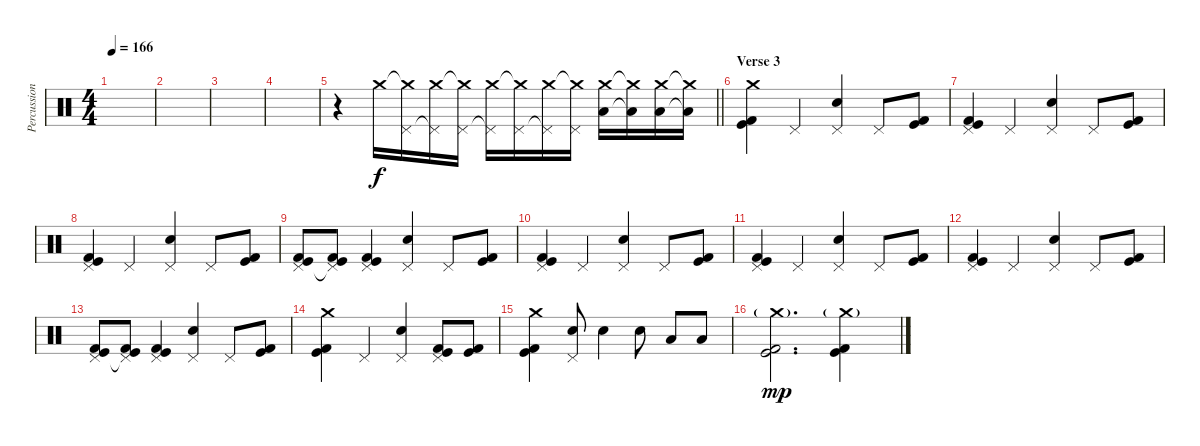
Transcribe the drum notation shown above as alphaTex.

\track ("Percussion" "Percussion") {instrument percussion}
\staff {score}
\articulation defaults
\ts (4 4)
\tempo 166
\clef neutral
\ks c
|
|
|
|
\barLineRight lightlight
r.4 "Crash medium (hit)".16{volume 9} ("Crash medium (hit)"{t} "Pedal Hi-Hat (hit)").16 ("Crash medium (hit)" "Pedal Hi-Hat (hit)"{t}).16 ("Crash medium (hit)"{t} "Pedal Hi-Hat (hit)").16 ("Crash medium (hit)" "Pedal Hi-Hat (hit)"{t}).16 ("Crash medium (hit)"{t} "Pedal Hi-Hat (hit)").16 ("Crash medium (hit)" "Pedal Hi-Hat (hit)"{t}).16 ("Crash medium (hit)"{t} "Pedal Hi-Hat (hit)").16 ("Crash medium (hit)" "Low Tom (hit)").16{volume 13} ("Crash medium (hit)"{t} "Low Tom (hit)"{t}).16 ("Crash medium (hit)" "Low Tom (hit)").16 ("Crash medium (hit)"{t} "Low Tom (hit)"{t}).16 |
\section ("" "Verse 3")
("Kick (hit) 2" "Crash medium (hit)" "Kick (hit)").4 "Pedal Hi-Hat (hit)".4 ("Electric Snare (hit)" "Pedal Hi-Hat (hit)").4 "Pedal Hi-Hat (hit)".8 ("Kick (hit) 2" "Kick (hit)").8 |
("Kick (hit) 2" "Pedal Hi-Hat (hit)" "Kick (hit)").4 "Pedal Hi-Hat (hit)".4 ("Electric Snare (hit)" "Pedal Hi-Hat (hit)").4 "Pedal Hi-Hat (hit)".8 ("Kick (hit) 2" "Kick (hit)").8 |
("Kick (hit) 2" "Pedal Hi-Hat (hit)" "Kick (hit)").4 "Pedal Hi-Hat (hit)".4 ("Electric Snare (hit)" "Pedal Hi-Hat (hit)").4 "Pedal Hi-Hat (hit)".8 ("Kick (hit) 2" "Kick (hit)").8 |
("Kick (hit) 2" "Pedal Hi-Hat (hit)" "Kick (hit)").8 ("Kick (hit) 2" "Pedal Hi-Hat (hit)"{t} "Kick (hit)").8 ("Kick (hit) 2" "Pedal Hi-Hat (hit)" "Kick (hit)").4 ("Electric Snare (hit)" "Pedal Hi-Hat (hit)").4 "Pedal Hi-Hat (hit)".8 ("Kick (hit) 2" "Kick (hit)").8 |
("Kick (hit) 2" "Pedal Hi-Hat (hit)" "Kick (hit)").4 "Pedal Hi-Hat (hit)".4 ("Electric Snare (hit)" "Pedal Hi-Hat (hit)").4 "Pedal Hi-Hat (hit)".8 ("Kick (hit) 2" "Kick (hit)").8 |
("Kick (hit) 2" "Pedal Hi-Hat (hit)" "Kick (hit)").4 "Pedal Hi-Hat (hit)".4 ("Electric Snare (hit)" "Pedal Hi-Hat (hit)").4 "Pedal Hi-Hat (hit)".8 ("Kick (hit) 2" "Kick (hit)").8 |
("Kick (hit) 2" "Pedal Hi-Hat (hit)" "Kick (hit)").4 "Pedal Hi-Hat (hit)".4 ("Electric Snare (hit)" "Pedal Hi-Hat (hit)").4 "Pedal Hi-Hat (hit)".8 ("Kick (hit) 2" "Kick (hit)").8 |
("Kick (hit) 2" "Pedal Hi-Hat (hit)" "Kick (hit)").8 ("Kick (hit) 2" "Pedal Hi-Hat (hit)"{t} "Kick (hit)").8 ("Kick (hit) 2" "Pedal Hi-Hat (hit)" "Kick (hit)").4 ("Electric Snare (hit)" "Pedal Hi-Hat (hit)").4 "Pedal Hi-Hat (hit)".8 ("Kick (hit) 2" "Kick (hit)").8 |
("Kick (hit) 2" "Crash medium (hit)" "Kick (hit)").4 "Pedal Hi-Hat (hit)".4 ("Electric Snare (hit)" "Pedal Hi-Hat (hit)").4 ("Kick (hit) 2" "Pedal Hi-Hat (hit)" "Kick (hit)").8 ("Kick (hit) 2" "Kick (hit)").8 |
("Kick (hit) 2" "Crash medium (hit)" "Kick (hit)").4 ("Electric Snare (hit)" "Pedal Hi-Hat (hit)").8 "Electric Snare (hit)".4 "Electric Snare (hit)".8 "Low Tom (hit)".8 "Low Tom (hit)".8 |
("Kick (hit) 2" "Crash medium (hit)"{g} "Kick (hit)").2{d dy mp} ("Kick (hit) 2" "Crash medium (hit)"{g} "Kick (hit)").4
